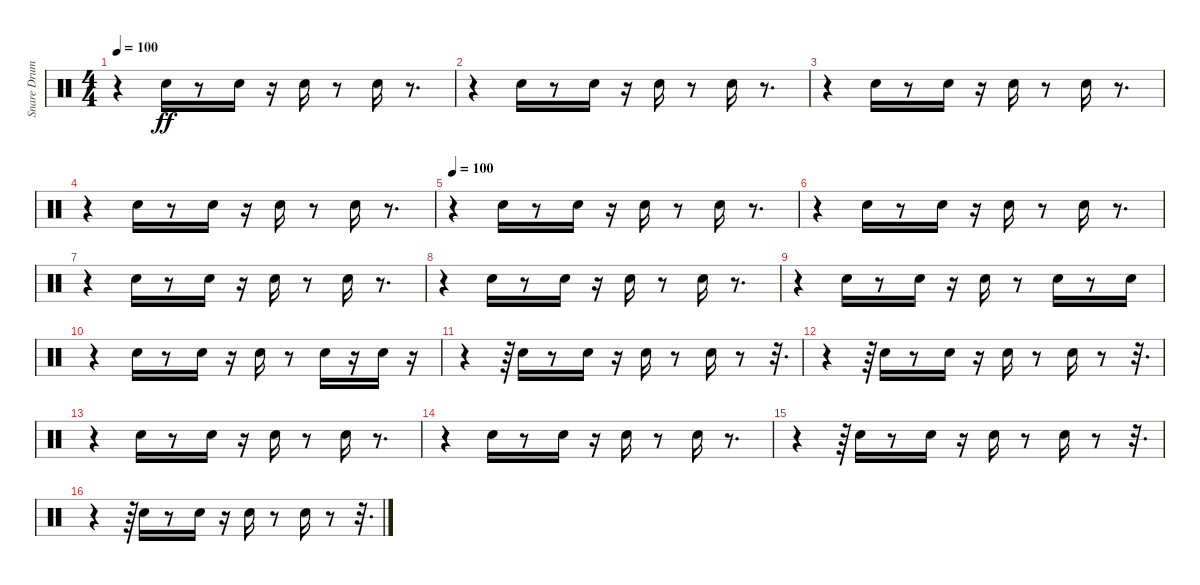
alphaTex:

\track ("Snare Drums" "Snare Drum") {instrument percussion}
\staff {score}
\articulation defaults
\ts (4 4)
\tempo 100
\clef neutral
\ks c
r.4{dy ff} "Snare (hit) 2".16 r.8 "Electric Snare (hit)".16 r.16 "Electric Snare (hit)".16 r.8 "Snare (hit) 2".16 r.8{d} |
r.4 "Snare (hit) 2".16 r.8 "Electric Snare (hit)".16 r.16 "Electric Snare (hit)".16 r.8 "Snare (hit) 2".16 r.8{d} |
r.4 "Snare (hit) 2".16 r.8 "Electric Snare (hit)".16 r.16 "Electric Snare (hit)".16 r.8 "Snare (hit) 2".16 r.8{d} |
r.4 "Snare (hit) 2".16 r.8 "Electric Snare (hit)".16 r.16 "Electric Snare (hit)".16 r.8 "Snare (hit) 2".16 r.8{d} |
\tempo 100
r.4 "Snare (hit) 2".16 r.8 "Electric Snare (hit)".16 r.16 "Electric Snare (hit)".16 r.8 "Snare (hit) 2".16 r.8{d} |
r.4 "Snare (hit) 2".16 r.8 "Electric Snare (hit)".16 r.16 "Electric Snare (hit)".16 r.8 "Snare (hit) 2".16 r.8{d} |
r.4 "Snare (hit) 2".16 r.8 "Electric Snare (hit)".16 r.16 "Electric Snare (hit)".16 r.8 "Snare (hit) 2".16 r.8{d} |
r.4 "Snare (hit) 2".16 r.8 "Electric Snare (hit)".16 r.16 "Electric Snare (hit)".16 r.8 "Snare (hit) 2".16 r.8{d} |
r.4 "Snare (hit) 2".16 r.8 "Electric Snare (hit)".16 r.16 "Electric Snare (hit)".16 r.8 "Snare (hit) 2".16 r.8 "Electric Snare (hit)".16 |
r.4 "Snare (hit) 2".16 r.8 "Electric Snare (hit)".16 r.16 "Electric Snare (hit)".16 r.8 "Snare (hit) 2".16 r.16 "Electric Snare (hit)".16 r.16 |
r.4 r.64 "Snare (hit) 2".16 r.8 "Electric Snare (hit)".16 r.16 "Electric Snare (hit)".16 r.8 "Snare (hit) 2".16 r.8 r.32{d} |
r.4 r.64 "Snare (hit) 2".16 r.8 "Electric Snare (hit)".16 r.16 "Electric Snare (hit)".16 r.8 "Snare (hit) 2".16 r.8 r.32{d} |
r.4 "Snare (hit) 2".16 r.8 "Electric Snare (hit)".16 r.16 "Electric Snare (hit)".16 r.8 "Snare (hit) 2".16 r.8{d} |
r.4 "Snare (hit) 2".16 r.8 "Electric Snare (hit)".16 r.16 "Electric Snare (hit)".16 r.8 "Snare (hit) 2".16 r.8{d} |
r.4 r.64 "Snare (hit) 2".16 r.8 "Electric Snare (hit)".16 r.16 "Electric Snare (hit)".16 r.8 "Snare (hit) 2".16 r.8 r.32{d} |
r.4 r.64 "Snare (hit) 2".16 r.8 "Electric Snare (hit)".16 r.16 "Electric Snare (hit)".16 r.8 "Snare (hit) 2".16 r.8 r.32{d}
